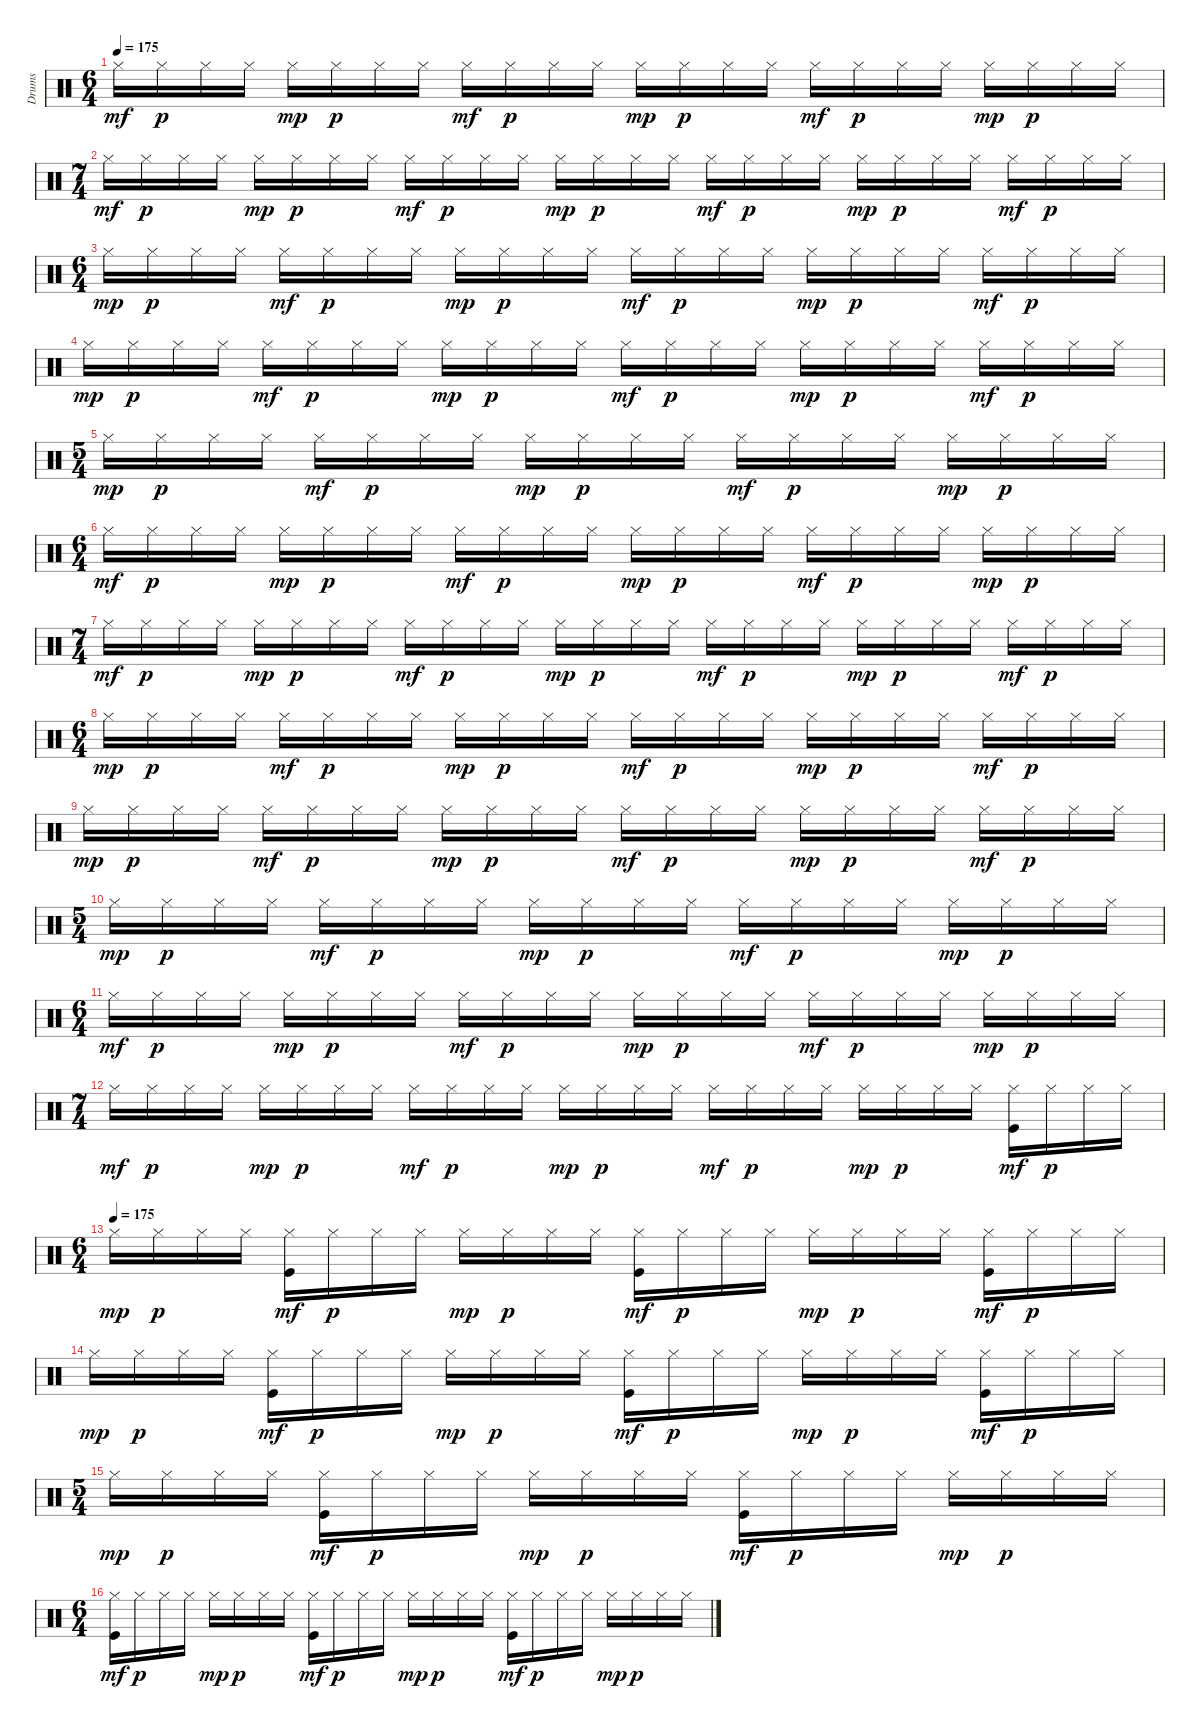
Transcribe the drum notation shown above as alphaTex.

\track ("Drums" "Drums") {instrument percussion}
\staff {score}
\articulation defaults
\ts (6 4)
\tempo 175
\clef neutral
\ks c "Hi-Hat (closed)".16{dy mf} "Hi-Hat (closed)".16{dy p} "Hi-Hat (closed)".16 "Hi-Hat (closed)".16 "Hi-Hat (closed)".16{dy mp} "Hi-Hat (closed)".16{dy p} "Hi-Hat (closed)".16 "Hi-Hat (closed)".16 "Hi-Hat (closed)".16{dy mf} "Hi-Hat (closed)".16{dy p} "Hi-Hat (closed)".16 "Hi-Hat (closed)".16 "Hi-Hat (closed)".16{dy mp} "Hi-Hat (closed)".16{dy p} "Hi-Hat (closed)".16 "Hi-Hat (closed)".16 "Hi-Hat (closed)".16{dy mf} "Hi-Hat (closed)".16{dy p} "Hi-Hat (closed)".16 "Hi-Hat (closed)".16 "Hi-Hat (closed)".16{dy mp} "Hi-Hat (closed)".16{dy p} "Hi-Hat (closed)".16 "Hi-Hat (closed)".16
|
\ts (7 4)
"Hi-Hat (closed)".16{dy mf} "Hi-Hat (closed)".16{dy p} "Hi-Hat (closed)".16 "Hi-Hat (closed)".16 "Hi-Hat (closed)".16{dy mp} "Hi-Hat (closed)".16{dy p} "Hi-Hat (closed)".16 "Hi-Hat (closed)".16 "Hi-Hat (closed)".16{dy mf} "Hi-Hat (closed)".16{dy p} "Hi-Hat (closed)".16 "Hi-Hat (closed)".16 "Hi-Hat (closed)".16{dy mp} "Hi-Hat (closed)".16{dy p} "Hi-Hat (closed)".16 "Hi-Hat (closed)".16 "Hi-Hat (closed)".16{dy mf} "Hi-Hat (closed)".16{dy p} "Hi-Hat (closed)".16 "Hi-Hat (closed)".16 "Hi-Hat (closed)".16{dy mp} "Hi-Hat (closed)".16{dy p} "Hi-Hat (closed)".16 "Hi-Hat (closed)".16 "Hi-Hat (closed)".16{dy mf} "Hi-Hat (closed)".16{dy p} "Hi-Hat (closed)".16 "Hi-Hat (closed)".16 |
\ts (6 4)
"Hi-Hat (closed)".16{dy mp} "Hi-Hat (closed)".16{dy p} "Hi-Hat (closed)".16 "Hi-Hat (closed)".16 "Hi-Hat (closed)".16{dy mf} "Hi-Hat (closed)".16{dy p} "Hi-Hat (closed)".16 "Hi-Hat (closed)".16 "Hi-Hat (closed)".16{dy mp} "Hi-Hat (closed)".16{dy p} "Hi-Hat (closed)".16 "Hi-Hat (closed)".16 "Hi-Hat (closed)".16{dy mf} "Hi-Hat (closed)".16{dy p} "Hi-Hat (closed)".16 "Hi-Hat (closed)".16 "Hi-Hat (closed)".16{dy mp} "Hi-Hat (closed)".16{dy p} "Hi-Hat (closed)".16 "Hi-Hat (closed)".16 "Hi-Hat (closed)".16{dy mf} "Hi-Hat (closed)".16{dy p} "Hi-Hat (closed)".16 "Hi-Hat (closed)".16 |
"Hi-Hat (closed)".16{dy mp} "Hi-Hat (closed)".16{dy p} "Hi-Hat (closed)".16 "Hi-Hat (closed)".16 "Hi-Hat (closed)".16{dy mf} "Hi-Hat (closed)".16{dy p} "Hi-Hat (closed)".16 "Hi-Hat (closed)".16 "Hi-Hat (closed)".16{dy mp} "Hi-Hat (closed)".16{dy p} "Hi-Hat (closed)".16 "Hi-Hat (closed)".16 "Hi-Hat (closed)".16{dy mf} "Hi-Hat (closed)".16{dy p} "Hi-Hat (closed)".16 "Hi-Hat (closed)".16 "Hi-Hat (closed)".16{dy mp} "Hi-Hat (closed)".16{dy p} "Hi-Hat (closed)".16 "Hi-Hat (closed)".16 "Hi-Hat (closed)".16{dy mf} "Hi-Hat (closed)".16{dy p} "Hi-Hat (closed)".16 "Hi-Hat (closed)".16 |
\ts (5 4)
"Hi-Hat (closed)".16{dy mp} "Hi-Hat (closed)".16{dy p} "Hi-Hat (closed)".16 "Hi-Hat (closed)".16 "Hi-Hat (closed)".16{dy mf} "Hi-Hat (closed)".16{dy p} "Hi-Hat (closed)".16 "Hi-Hat (closed)".16 "Hi-Hat (closed)".16{dy mp} "Hi-Hat (closed)".16{dy p} "Hi-Hat (closed)".16 "Hi-Hat (closed)".16 "Hi-Hat (closed)".16{dy mf} "Hi-Hat (closed)".16{dy p} "Hi-Hat (closed)".16 "Hi-Hat (closed)".16 "Hi-Hat (closed)".16{dy mp} "Hi-Hat (closed)".16{dy p} "Hi-Hat (closed)".16 "Hi-Hat (closed)".16 |
\ts (6 4)
"Hi-Hat (closed)".16{dy mf} "Hi-Hat (closed)".16{dy p} "Hi-Hat (closed)".16 "Hi-Hat (closed)".16 "Hi-Hat (closed)".16{dy mp} "Hi-Hat (closed)".16{dy p} "Hi-Hat (closed)".16 "Hi-Hat (closed)".16 "Hi-Hat (closed)".16{dy mf} "Hi-Hat (closed)".16{dy p} "Hi-Hat (closed)".16 "Hi-Hat (closed)".16 "Hi-Hat (closed)".16{dy mp} "Hi-Hat (closed)".16{dy p} "Hi-Hat (closed)".16 "Hi-Hat (closed)".16 "Hi-Hat (closed)".16{dy mf} "Hi-Hat (closed)".16{dy p} "Hi-Hat (closed)".16 "Hi-Hat (closed)".16 "Hi-Hat (closed)".16{dy mp} "Hi-Hat (closed)".16{dy p} "Hi-Hat (closed)".16 "Hi-Hat (closed)".16 |
\ts (7 4)
"Hi-Hat (closed)".16{dy mf} "Hi-Hat (closed)".16{dy p} "Hi-Hat (closed)".16 "Hi-Hat (closed)".16 "Hi-Hat (closed)".16{dy mp} "Hi-Hat (closed)".16{dy p} "Hi-Hat (closed)".16 "Hi-Hat (closed)".16 "Hi-Hat (closed)".16{dy mf} "Hi-Hat (closed)".16{dy p} "Hi-Hat (closed)".16 "Hi-Hat (closed)".16 "Hi-Hat (closed)".16{dy mp} "Hi-Hat (closed)".16{dy p} "Hi-Hat (closed)".16 "Hi-Hat (closed)".16 "Hi-Hat (closed)".16{dy mf} "Hi-Hat (closed)".16{dy p} "Hi-Hat (closed)".16 "Hi-Hat (closed)".16 "Hi-Hat (closed)".16{dy mp} "Hi-Hat (closed)".16{dy p} "Hi-Hat (closed)".16 "Hi-Hat (closed)".16 "Hi-Hat (closed)".16{dy mf} "Hi-Hat (closed)".16{dy p} "Hi-Hat (closed)".16 "Hi-Hat (closed)".16 |
\ts (6 4)
"Hi-Hat (closed)".16{dy mp} "Hi-Hat (closed)".16{dy p} "Hi-Hat (closed)".16 "Hi-Hat (closed)".16 "Hi-Hat (closed)".16{dy mf} "Hi-Hat (closed)".16{dy p} "Hi-Hat (closed)".16 "Hi-Hat (closed)".16 "Hi-Hat (closed)".16{dy mp} "Hi-Hat (closed)".16{dy p} "Hi-Hat (closed)".16 "Hi-Hat (closed)".16 "Hi-Hat (closed)".16{dy mf} "Hi-Hat (closed)".16{dy p} "Hi-Hat (closed)".16 "Hi-Hat (closed)".16 "Hi-Hat (closed)".16{dy mp} "Hi-Hat (closed)".16{dy p} "Hi-Hat (closed)".16 "Hi-Hat (closed)".16 "Hi-Hat (closed)".16{dy mf} "Hi-Hat (closed)".16{dy p} "Hi-Hat (closed)".16 "Hi-Hat (closed)".16 |
"Hi-Hat (closed)".16{dy mp} "Hi-Hat (closed)".16{dy p} "Hi-Hat (closed)".16 "Hi-Hat (closed)".16 "Hi-Hat (closed)".16{dy mf} "Hi-Hat (closed)".16{dy p} "Hi-Hat (closed)".16 "Hi-Hat (closed)".16 "Hi-Hat (closed)".16{dy mp} "Hi-Hat (closed)".16{dy p} "Hi-Hat (closed)".16 "Hi-Hat (closed)".16 "Hi-Hat (closed)".16{dy mf} "Hi-Hat (closed)".16{dy p} "Hi-Hat (closed)".16 "Hi-Hat (closed)".16 "Hi-Hat (closed)".16{dy mp} "Hi-Hat (closed)".16{dy p} "Hi-Hat (closed)".16 "Hi-Hat (closed)".16 "Hi-Hat (closed)".16{dy mf} "Hi-Hat (closed)".16{dy p} "Hi-Hat (closed)".16 "Hi-Hat (closed)".16 |
\ts (5 4)
"Hi-Hat (closed)".16{dy mp} "Hi-Hat (closed)".16{dy p} "Hi-Hat (closed)".16 "Hi-Hat (closed)".16 "Hi-Hat (closed)".16{dy mf} "Hi-Hat (closed)".16{dy p} "Hi-Hat (closed)".16 "Hi-Hat (closed)".16 "Hi-Hat (closed)".16{dy mp} "Hi-Hat (closed)".16{dy p} "Hi-Hat (closed)".16 "Hi-Hat (closed)".16 "Hi-Hat (closed)".16{dy mf} "Hi-Hat (closed)".16{dy p} "Hi-Hat (closed)".16 "Hi-Hat (closed)".16 "Hi-Hat (closed)".16{dy mp} "Hi-Hat (closed)".16{dy p} "Hi-Hat (closed)".16 "Hi-Hat (closed)".16 |
\ts (6 4)
"Hi-Hat (closed)".16{dy mf} "Hi-Hat (closed)".16{dy p} "Hi-Hat (closed)".16 "Hi-Hat (closed)".16 "Hi-Hat (closed)".16{dy mp} "Hi-Hat (closed)".16{dy p} "Hi-Hat (closed)".16 "Hi-Hat (closed)".16 "Hi-Hat (closed)".16{dy mf} "Hi-Hat (closed)".16{dy p} "Hi-Hat (closed)".16 "Hi-Hat (closed)".16 "Hi-Hat (closed)".16{dy mp} "Hi-Hat (closed)".16{dy p} "Hi-Hat (closed)".16 "Hi-Hat (closed)".16 "Hi-Hat (closed)".16{dy mf} "Hi-Hat (closed)".16{dy p} "Hi-Hat (closed)".16 "Hi-Hat (closed)".16 "Hi-Hat (closed)".16{dy mp} "Hi-Hat (closed)".16{dy p} "Hi-Hat (closed)".16 "Hi-Hat (closed)".16 |
\ts (7 4)
"Hi-Hat (closed)".16{dy mf} "Hi-Hat (closed)".16{dy p} "Hi-Hat (closed)".16 "Hi-Hat (closed)".16 "Hi-Hat (closed)".16{dy mp} "Hi-Hat (closed)".16{dy p} "Hi-Hat (closed)".16 "Hi-Hat (closed)".16 "Hi-Hat (closed)".16{dy mf} "Hi-Hat (closed)".16{dy p} "Hi-Hat (closed)".16 "Hi-Hat (closed)".16 "Hi-Hat (closed)".16{dy mp} "Hi-Hat (closed)".16{dy p} "Hi-Hat (closed)".16 "Hi-Hat (closed)".16 "Hi-Hat (closed)".16{dy mf} "Hi-Hat (closed)".16{dy p} "Hi-Hat (closed)".16 "Hi-Hat (closed)".16 "Hi-Hat (closed)".16{dy mp} "Hi-Hat (closed)".16{dy p} "Hi-Hat (closed)".16 "Hi-Hat (closed)".16 ("Hi-Hat (closed)" "Kick (hit)").16{dy mf} "Hi-Hat (closed)".16{dy p} "Hi-Hat (closed)".16 "Hi-Hat (closed)".16 |
\ts (6 4)
\tempo (175)
"Hi-Hat (closed)".16{dy mp} "Hi-Hat (closed)".16{dy p} "Hi-Hat (closed)".16 "Hi-Hat (closed)".16 ("Hi-Hat (closed)" "Kick (hit)").16{dy mf} "Hi-Hat (closed)".16{dy p} "Hi-Hat (closed)".16 "Hi-Hat (closed)".16 "Hi-Hat (closed)".16{dy mp} "Hi-Hat (closed)".16{dy p} "Hi-Hat (closed)".16 "Hi-Hat (closed)".16 ("Hi-Hat (closed)" "Kick (hit)").16{dy mf} "Hi-Hat (closed)".16{dy p} "Hi-Hat (closed)".16 "Hi-Hat (closed)".16 "Hi-Hat (closed)".16{dy mp} "Hi-Hat (closed)".16{dy p} "Hi-Hat (closed)".16 "Hi-Hat (closed)".16 ("Hi-Hat (closed)" "Kick (hit)").16{dy mf} "Hi-Hat (closed)".16{dy p} "Hi-Hat (closed)".16 "Hi-Hat (closed)".16 |
"Hi-Hat (closed)".16{dy mp} "Hi-Hat (closed)".16{dy p} "Hi-Hat (closed)".16 "Hi-Hat (closed)".16 ("Hi-Hat (closed)" "Kick (hit)").16{dy mf} "Hi-Hat (closed)".16{dy p} "Hi-Hat (closed)".16 "Hi-Hat (closed)".16 "Hi-Hat (closed)".16{dy mp} "Hi-Hat (closed)".16{dy p} "Hi-Hat (closed)".16 "Hi-Hat (closed)".16 ("Hi-Hat (closed)" "Kick (hit)").16{dy mf} "Hi-Hat (closed)".16{dy p} "Hi-Hat (closed)".16 "Hi-Hat (closed)".16 "Hi-Hat (closed)".16{dy mp} "Hi-Hat (closed)".16{dy p} "Hi-Hat (closed)".16 "Hi-Hat (closed)".16 ("Hi-Hat (closed)" "Kick (hit)").16{dy mf} "Hi-Hat (closed)".16{dy p} "Hi-Hat (closed)".16 "Hi-Hat (closed)".16 |
\ts (5 4)
"Hi-Hat (closed)".16{dy mp} "Hi-Hat (closed)".16{dy p} "Hi-Hat (closed)".16 "Hi-Hat (closed)".16 ("Hi-Hat (closed)" "Kick (hit)").16{dy mf} "Hi-Hat (closed)".16{dy p} "Hi-Hat (closed)".16 "Hi-Hat (closed)".16 "Hi-Hat (closed)".16{dy mp} "Hi-Hat (closed)".16{dy p} "Hi-Hat (closed)".16 "Hi-Hat (closed)".16 ("Hi-Hat (closed)" "Kick (hit)").16{dy mf} "Hi-Hat (closed)".16{dy p} "Hi-Hat (closed)".16 "Hi-Hat (closed)".16 "Hi-Hat (closed)".16{dy mp} "Hi-Hat (closed)".16{dy p} "Hi-Hat (closed)".16 "Hi-Hat (closed)".16 |
\ts (6 4)
("Hi-Hat (closed)" "Kick (hit)").16{dy mf} "Hi-Hat (closed)".16{dy p} "Hi-Hat (closed)".16 "Hi-Hat (closed)".16 "Hi-Hat (closed)".16{dy mp} "Hi-Hat (closed)".16{dy p} "Hi-Hat (closed)".16 "Hi-Hat (closed)".16 ("Hi-Hat (closed)" "Kick (hit)").16{dy mf} "Hi-Hat (closed)".16{dy p} "Hi-Hat (closed)".16 "Hi-Hat (closed)".16 "Hi-Hat (closed)".16{dy mp} "Hi-Hat (closed)".16{dy p} "Hi-Hat (closed)".16 "Hi-Hat (closed)".16 ("Hi-Hat (closed)" "Kick (hit)").16{dy mf} "Hi-Hat (closed)".16{dy p} "Hi-Hat (closed)".16 "Hi-Hat (closed)".16 "Hi-Hat (closed)".16{dy mp} "Hi-Hat (closed)".16{dy p} "Hi-Hat (closed)".16 "Hi-Hat (closed)".16
